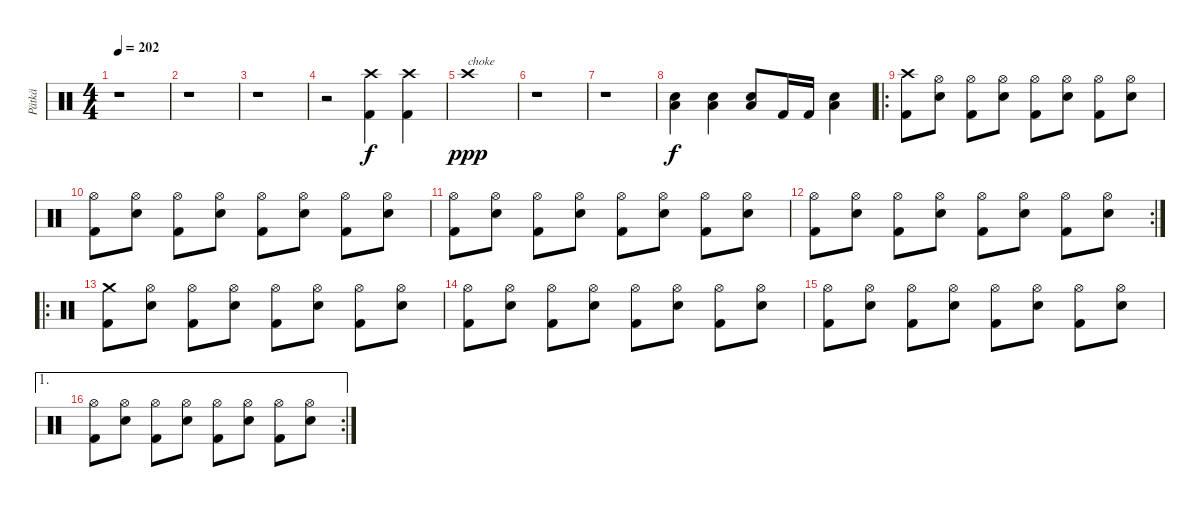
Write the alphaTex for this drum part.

\track ("Pätkä" "Pätkä") {instrument percussion}
\staff {score}
\articulation defaults
\ts (4 4)
\tempo 202
\clef neutral
\ks c
r.1{dy f} |
r.1 |
r.1 |
r.2 ("Crash high (hit)" "Kick (hit) 2").4 ("Crash high (hit)" "Kick (hit) 2").4 |
"Crash high (hit)".1{txt "choke" dy ppp} |
r.1 |
r.1 |
("Low Floor Tom (hit)" "Electric Snare (hit)").4{dy f} ("Low Floor Tom (hit)" "Electric Snare (hit)").4 ("Low Floor Tom (hit)" "Electric Snare (hit)").8 "Kick (hit) 2".16 "Kick (hit) 2".16 ("Low Floor Tom (hit)" "Electric Snare (hit)").4 |
\ro
("Crash high (hit)" "Kick (hit) 2").8 ("Hi-Hat (open)" "Electric Snare (hit)").8 ("Hi-Hat (open)" "Kick (hit) 2").8 ("Hi-Hat (open)" "Electric Snare (hit)").8 ("Hi-Hat (open)" "Kick (hit) 2").8 ("Hi-Hat (open)" "Electric Snare (hit)").8 ("Hi-Hat (open)" "Kick (hit) 2").8 ("Hi-Hat (open)" "Electric Snare (hit)").8 |
("Hi-Hat (open)" "Kick (hit) 2").8 ("Hi-Hat (open)" "Electric Snare (hit)").8 ("Hi-Hat (open)" "Kick (hit) 2").8 ("Hi-Hat (open)" "Electric Snare (hit)").8 ("Hi-Hat (open)" "Kick (hit) 2").8 ("Hi-Hat (open)" "Electric Snare (hit)").8 ("Hi-Hat (open)" "Kick (hit) 2").8 ("Hi-Hat (open)" "Electric Snare (hit)").8 |
("Hi-Hat (open)" "Kick (hit) 2").8 ("Hi-Hat (open)" "Electric Snare (hit)").8 ("Hi-Hat (open)" "Kick (hit) 2").8 ("Hi-Hat (open)" "Electric Snare (hit)").8 ("Hi-Hat (open)" "Kick (hit) 2").8 ("Hi-Hat (open)" "Electric Snare (hit)").8 ("Hi-Hat (open)" "Kick (hit) 2").8 ("Hi-Hat (open)" "Electric Snare (hit)").8 |
\rc 2
("Hi-Hat (open)" "Kick (hit) 2").8 ("Hi-Hat (open)" "Electric Snare (hit)").8 ("Hi-Hat (open)" "Kick (hit) 2").8 ("Hi-Hat (open)" "Electric Snare (hit)").8 ("Hi-Hat (open)" "Kick (hit) 2").8 ("Hi-Hat (open)" "Electric Snare (hit)").8 ("Hi-Hat (open)" "Kick (hit) 2").8 ("Hi-Hat (open)" "Electric Snare (hit)").8 |
\ro
("Crash medium (hit)" "Kick (hit) 2").8 ("Hi-Hat (open)" "Electric Snare (hit)").8 ("Hi-Hat (open)" "Kick (hit) 2").8 ("Hi-Hat (open)" "Electric Snare (hit)").8 ("Hi-Hat (open)" "Kick (hit) 2").8 ("Hi-Hat (open)" "Electric Snare (hit)").8 ("Hi-Hat (open)" "Kick (hit) 2").8 ("Hi-Hat (open)" "Electric Snare (hit)").8 |
("Hi-Hat (open)" "Kick (hit) 2").8 ("Hi-Hat (open)" "Electric Snare (hit)").8 ("Hi-Hat (open)" "Kick (hit) 2").8 ("Hi-Hat (open)" "Electric Snare (hit)").8 ("Hi-Hat (open)" "Kick (hit) 2").8 ("Hi-Hat (open)" "Electric Snare (hit)").8 ("Hi-Hat (open)" "Kick (hit) 2").8 ("Hi-Hat (open)" "Electric Snare (hit)").8 |
("Hi-Hat (open)" "Kick (hit) 2").8 ("Hi-Hat (open)" "Electric Snare (hit)").8 ("Hi-Hat (open)" "Kick (hit) 2").8 ("Hi-Hat (open)" "Electric Snare (hit)").8 ("Hi-Hat (open)" "Kick (hit) 2").8 ("Hi-Hat (open)" "Electric Snare (hit)").8 ("Hi-Hat (open)" "Kick (hit) 2").8 ("Hi-Hat (open)" "Electric Snare (hit)").8 |
\ae 1
\rc 2
("Hi-Hat (open)" "Kick (hit) 2").8 ("Hi-Hat (open)" "Electric Snare (hit)").8 ("Hi-Hat (open)" "Kick (hit) 2").8 ("Hi-Hat (open)" "Electric Snare (hit)").8 ("Hi-Hat (open)" "Kick (hit) 2").8 ("Hi-Hat (open)" "Electric Snare (hit)").8 ("Hi-Hat (open)" "Kick (hit) 2").8 ("Hi-Hat (open)" "Electric Snare (hit)").8
